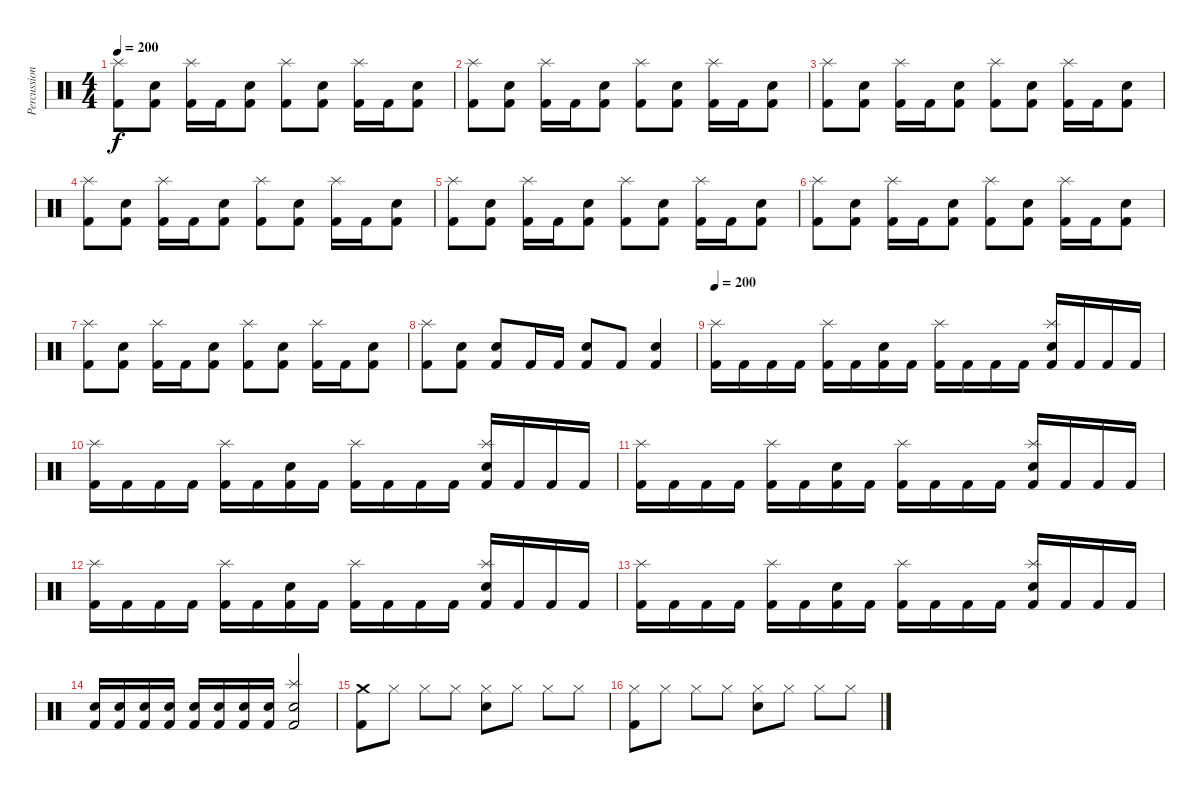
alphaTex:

\track ("Percussion" "Percussion") {instrument percussion}
\staff {score}
\articulation defaults
\ts (4 4)
\tempo 200
\clef neutral
\ks c
("Kick (hit) 2" "Splash (hit)").8{dy f} ("Kick (hit) 2" "Snare (hit) 2").8 ("Kick (hit) 2" "Splash (hit)").16 "Kick (hit) 2".16 ("Kick (hit) 2" "Snare (hit) 2").8 ("Kick (hit) 2" "Splash (hit)").8 ("Kick (hit) 2" "Snare (hit) 2").8 ("Kick (hit) 2" "Splash (hit)").16 "Kick (hit) 2".16 ("Kick (hit) 2" "Snare (hit) 2").8 |
("Kick (hit) 2" "Splash (hit)").8 ("Kick (hit) 2" "Snare (hit) 2").8 ("Kick (hit) 2" "Splash (hit)").16 "Kick (hit) 2".16 ("Kick (hit) 2" "Snare (hit) 2").8 ("Kick (hit) 2" "Splash (hit)").8 ("Kick (hit) 2" "Snare (hit) 2").8 ("Kick (hit) 2" "Splash (hit)").16 "Kick (hit) 2".16 ("Kick (hit) 2" "Snare (hit) 2").8 |
("Kick (hit) 2" "Splash (hit)").8 ("Kick (hit) 2" "Snare (hit) 2").8 ("Kick (hit) 2" "Splash (hit)").16 "Kick (hit) 2".16 ("Kick (hit) 2" "Snare (hit) 2").8 ("Kick (hit) 2" "Splash (hit)").8 ("Kick (hit) 2" "Snare (hit) 2").8 ("Kick (hit) 2" "Splash (hit)").16 "Kick (hit) 2".16 ("Kick (hit) 2" "Snare (hit) 2").8 |
("Kick (hit) 2" "Splash (hit)").8 ("Kick (hit) 2" "Snare (hit) 2").8 ("Kick (hit) 2" "Splash (hit)").16 "Kick (hit) 2".16 ("Kick (hit) 2" "Snare (hit) 2").8 ("Kick (hit) 2" "Splash (hit)").8 ("Kick (hit) 2" "Snare (hit) 2").8 ("Kick (hit) 2" "Splash (hit)").16 "Kick (hit) 2".16 ("Kick (hit) 2" "Snare (hit) 2").8 |
("Kick (hit) 2" "Splash (hit)").8 ("Kick (hit) 2" "Snare (hit) 2").8 ("Kick (hit) 2" "Splash (hit)").16 "Kick (hit) 2".16 ("Kick (hit) 2" "Snare (hit) 2").8 ("Kick (hit) 2" "Splash (hit)").8 ("Kick (hit) 2" "Snare (hit) 2").8 ("Kick (hit) 2" "Splash (hit)").16 "Kick (hit) 2".16 ("Kick (hit) 2" "Snare (hit) 2").8 |
("Kick (hit) 2" "Splash (hit)").8 ("Kick (hit) 2" "Snare (hit) 2").8 ("Kick (hit) 2" "Splash (hit)").16 "Kick (hit) 2".16 ("Kick (hit) 2" "Snare (hit) 2").8 ("Kick (hit) 2" "Splash (hit)").8 ("Kick (hit) 2" "Snare (hit) 2").8 ("Kick (hit) 2" "Splash (hit)").16 "Kick (hit) 2".16 ("Kick (hit) 2" "Snare (hit) 2").8 |
("Kick (hit) 2" "Splash (hit)").8 ("Kick (hit) 2" "Snare (hit) 2").8 ("Kick (hit) 2" "Splash (hit)").16 "Kick (hit) 2".16 ("Kick (hit) 2" "Snare (hit) 2").8 ("Kick (hit) 2" "Splash (hit)").8 ("Kick (hit) 2" "Snare (hit) 2").8 ("Kick (hit) 2" "Splash (hit)").16 "Kick (hit) 2".16 ("Kick (hit) 2" "Snare (hit) 2").8 |
("Kick (hit) 2" "Splash (hit)").8 ("Kick (hit) 2" "Snare (hit) 2").8 ("Kick (hit) 2" "Snare (hit) 2").8 "Kick (hit) 2".16 "Kick (hit) 2".16 ("Kick (hit) 2" "Snare (hit) 2").8 "Kick (hit) 2".8 ("Kick (hit) 2" "Snare (hit) 2").4 |
\tempo 200
("Kick (hit) 2" "Splash (hit)").16 "Kick (hit) 2".16 "Kick (hit) 2".16 "Kick (hit) 2".16 ("Kick (hit) 2" "Splash (hit)").16 "Kick (hit) 2".16 ("Kick (hit) 2" "Snare (hit) 2").16 "Kick (hit) 2".16 ("Kick (hit) 2" "Splash (hit)").16 "Kick (hit) 2".16 "Kick (hit) 2".16 "Kick (hit) 2".16 ("Kick (hit) 2" "Splash (hit)" "Snare (hit) 2").16 "Kick (hit) 2".16 "Kick (hit) 2".16 "Kick (hit) 2".16 |
("Kick (hit) 2" "Splash (hit)").16 "Kick (hit) 2".16 "Kick (hit) 2".16 "Kick (hit) 2".16 ("Kick (hit) 2" "Splash (hit)").16 "Kick (hit) 2".16 ("Kick (hit) 2" "Snare (hit) 2").16 "Kick (hit) 2".16 ("Kick (hit) 2" "Splash (hit)").16 "Kick (hit) 2".16 "Kick (hit) 2".16 "Kick (hit) 2".16 ("Kick (hit) 2" "Splash (hit)" "Snare (hit) 2").16 "Kick (hit) 2".16 "Kick (hit) 2".16 "Kick (hit) 2".16 |
("Kick (hit) 2" "Splash (hit)").16 "Kick (hit) 2".16 "Kick (hit) 2".16 "Kick (hit) 2".16 ("Kick (hit) 2" "Splash (hit)").16 "Kick (hit) 2".16 ("Kick (hit) 2" "Snare (hit) 2").16 "Kick (hit) 2".16 ("Kick (hit) 2" "Splash (hit)").16 "Kick (hit) 2".16 "Kick (hit) 2".16 "Kick (hit) 2".16 ("Kick (hit) 2" "Splash (hit)" "Snare (hit) 2").16 "Kick (hit) 2".16 "Kick (hit) 2".16 "Kick (hit) 2".16 |
("Kick (hit) 2" "Splash (hit)").16 "Kick (hit) 2".16 "Kick (hit) 2".16 "Kick (hit) 2".16 ("Kick (hit) 2" "Splash (hit)").16 "Kick (hit) 2".16 ("Kick (hit) 2" "Snare (hit) 2").16 "Kick (hit) 2".16 ("Kick (hit) 2" "Splash (hit)").16 "Kick (hit) 2".16 "Kick (hit) 2".16 "Kick (hit) 2".16 ("Kick (hit) 2" "Splash (hit)" "Snare (hit) 2").16 "Kick (hit) 2".16 "Kick (hit) 2".16 "Kick (hit) 2".16 |
("Kick (hit) 2" "Splash (hit)").16 "Kick (hit) 2".16 "Kick (hit) 2".16 "Kick (hit) 2".16 ("Kick (hit) 2" "Splash (hit)").16 "Kick (hit) 2".16 ("Kick (hit) 2" "Snare (hit) 2").16 "Kick (hit) 2".16 ("Kick (hit) 2" "Splash (hit)").16 "Kick (hit) 2".16 "Kick (hit) 2".16 "Kick (hit) 2".16 ("Kick (hit) 2" "Splash (hit)" "Snare (hit) 2").16 "Kick (hit) 2".16 "Kick (hit) 2".16 "Kick (hit) 2".16 |
("Kick (hit) 2" "Snare (hit) 2").16 ("Kick (hit) 2" "Snare (hit) 2").16 ("Kick (hit) 2" "Snare (hit) 2").16 ("Kick (hit) 2" "Snare (hit) 2").16 ("Kick (hit) 2" "Snare (hit) 2").16 ("Kick (hit) 2" "Snare (hit) 2").16 ("Kick (hit) 2" "Snare (hit) 2").16 ("Kick (hit) 2" "Snare (hit) 2").16 ("Kick (hit) 2" "Snare (hit) 2" "Splash (hit)").2 |
("Kick (hit) 2" "Crash medium (hit)").8 "Hi-Hat (closed)".8 "Hi-Hat (closed)".8 "Hi-Hat (closed)".8 ("Snare (hit) 2" "Hi-Hat (closed)").8 "Hi-Hat (closed)".8 "Hi-Hat (closed)".8 "Hi-Hat (closed)".8 |
("Kick (hit) 2" "Hi-Hat (closed)").8 "Hi-Hat (closed)".8 "Hi-Hat (closed)".8 "Hi-Hat (closed)".8 ("Snare (hit) 2" "Hi-Hat (closed)").8 "Hi-Hat (closed)".8 "Hi-Hat (closed)".8 "Hi-Hat (closed)".8
